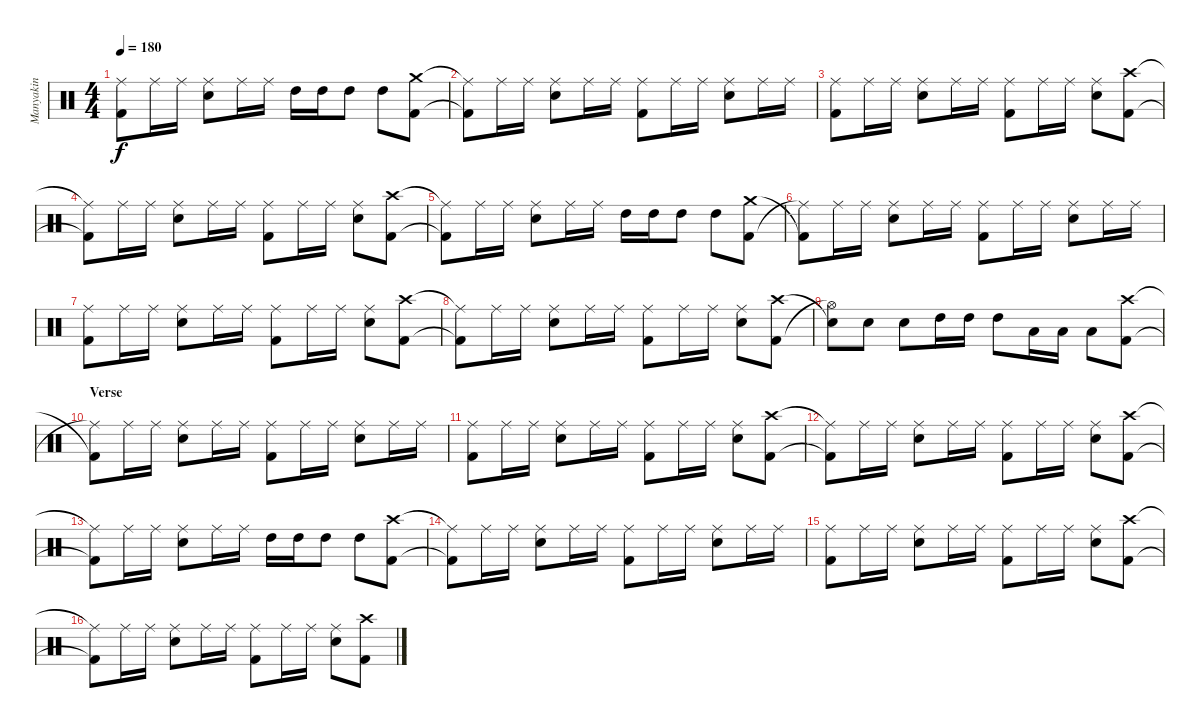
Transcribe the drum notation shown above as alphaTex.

\track ("Manyakin" "Manyakin") {instrument percussion}
\staff {score}
\articulation defaults
\ts (4 4)
\tempo 180
\clef neutral
\ks c
("Kick (hit) 2"{t} "Ride (middle)"{t}).8{dy f} "Ride (middle)".16 "Ride (middle)".16 ("Snare (hit) 2" "Ride (middle)").8 "Ride (middle)".16 "Ride (middle)".16 "High Tom (hit)".16 "High Tom (hit)".16 "High Tom (hit)".8 "High Tom (hit)".8 ("Crash medium (hit)" "Kick (hit) 2").8 |
("Ride (middle)"{t} "Kick (hit) 2"{t}).8 "Ride (middle)".16 "Ride (middle)".16 ("Ride (middle)" "Snare (hit) 2").8 "Ride (middle)".16 "Ride (middle)".16 ("Ride (middle)" "Kick (hit) 2").8 "Ride (middle)".16 "Ride (middle)".16 ("Ride (middle)" "Snare (hit) 2").8 "Ride (middle)".16 "Ride (middle)".16 |
("Kick (hit) 2" "Ride (middle)").8 "Ride (middle)".16 "Ride (middle)".16 ("Snare (hit) 2" "Ride (middle)").8 "Ride (middle)".16 "Ride (middle)".16 ("Kick (hit) 2" "Ride (middle)").8 "Ride (middle)".16 "Ride (middle)".16 ("Snare (hit) 2" "Ride (middle)").8 ("Kick (hit) 2" "Crash high (hit)").8 |
("Kick (hit) 2"{t} "Ride (middle)"{t}).8 "Ride (middle)".16 "Ride (middle)".16 ("Snare (hit) 2" "Ride (middle)").8 "Ride (middle)".16 "Ride (middle)".16 ("Kick (hit) 2" "Ride (middle)").8 "Ride (middle)".16 "Ride (middle)".16 ("Snare (hit) 2" "Ride (middle)").8 ("Kick (hit) 2" "Crash high (hit)").8 |
("Kick (hit) 2"{t} "Ride (middle)"{t}).8 "Ride (middle)".16 "Ride (middle)".16 ("Snare (hit) 2" "Ride (middle)").8 "Ride (middle)".16 "Ride (middle)".16 "High Tom (hit)".16 "High Tom (hit)".16 "High Tom (hit)".8 "High Tom (hit)".8 ("Crash medium (hit)" "Kick (hit) 2").8 |
("Kick (hit) 2"{t} "Ride (middle)"{t}).8 "Ride (middle)".16 "Ride (middle)".16 ("Snare (hit) 2" "Ride (middle)").8 "Ride (middle)".16 "Ride (middle)".16 ("Kick (hit) 2" "Ride (middle)").8 "Ride (middle)".16 "Ride (middle)".16 ("Snare (hit) 2" "Ride (middle)").8 "Ride (middle)".16 "Ride (middle)".16 |
("Kick (hit) 2" "Ride (middle)").8 "Ride (middle)".16 "Ride (middle)".16 ("Snare (hit) 2" "Ride (middle)").8 "Ride (middle)".16 "Ride (middle)".16 ("Kick (hit) 2" "Ride (middle)").8 "Ride (middle)".16 "Ride (middle)".16 ("Snare (hit) 2" "Ride (middle)").8 ("Kick (hit) 2" "Crash high (hit)").8 |
("Kick (hit) 2"{t} "Ride (middle)"{t}).8 "Ride (middle)".16 "Ride (middle)".16 ("Snare (hit) 2" "Ride (middle)").8 "Ride (middle)".16 "Ride (middle)".16 ("Kick (hit) 2" "Ride (middle)").8 "Ride (middle)".16 "Ride (middle)".16 ("Snare (hit) 2" "Ride (middle)").8 ("Kick (hit) 2" "Crash high (hit)").8 |
("Hi-Hat (open)"{t} "Snare (hit)"{t}).8 "Snare (hit) 2".8 "Snare (hit) 2".8 "High Tom (hit)".16 "High Tom (hit)".16 "High Tom (hit)".8 "Low Tom (hit)".16 "Low Tom (hit)".16 "Low Tom (hit)".8 ("Kick (hit) 2" "Crash high (hit)").8 |
\section ("" "Verse")
("Ride (middle)"{t} "Kick (hit) 2"{t}).8 "Ride (middle)".16 "Ride (middle)".16 ("Ride (middle)" "Snare (hit) 2").8 "Ride (middle)".16 "Ride (middle)".16 ("Ride (middle)" "Kick (hit) 2").8 "Ride (middle)".16 "Ride (middle)".16 ("Ride (middle)" "Snare (hit) 2").8 "Ride (middle)".16 "Ride (middle)".16 |
("Kick (hit) 2" "Ride (middle)").8 "Ride (middle)".16 "Ride (middle)".16 ("Snare (hit) 2" "Ride (middle)").8 "Ride (middle)".16 "Ride (middle)".16 ("Kick (hit) 2" "Ride (middle)").8 "Ride (middle)".16 "Ride (middle)".16 ("Snare (hit) 2" "Ride (middle)").8 ("Kick (hit) 2" "Crash high (hit)").8 |
("Kick (hit) 2"{t} "Ride (middle)"{t}).8 "Ride (middle)".16 "Ride (middle)".16 ("Snare (hit) 2" "Ride (middle)").8 "Ride (middle)".16 "Ride (middle)".16 ("Kick (hit) 2" "Ride (middle)").8 "Ride (middle)".16 "Ride (middle)".16 ("Snare (hit) 2" "Ride (middle)").8 ("Kick (hit) 2" "Crash high (hit)").8 |
("Kick (hit) 2"{t} "Ride (middle)"{t}).8 "Ride (middle)".16 "Ride (middle)".16 ("Snare (hit) 2" "Ride (middle)").8 "Ride (middle)".16 "Ride (middle)".16 "High Tom (hit)".16 "High Tom (hit)".16 "High Tom (hit)".8 "High Tom (hit)".8 ("Crash high (hit)" "Kick (hit) 2").8 |
("Ride (middle)"{t} "Kick (hit) 2"{t}).8 "Ride (middle)".16 "Ride (middle)".16 ("Ride (middle)" "Snare (hit) 2").8 "Ride (middle)".16 "Ride (middle)".16 ("Ride (middle)" "Kick (hit) 2").8 "Ride (middle)".16 "Ride (middle)".16 ("Ride (middle)" "Snare (hit) 2").8 "Ride (middle)".16 "Ride (middle)".16 |
("Kick (hit) 2" "Ride (middle)").8 "Ride (middle)".16 "Ride (middle)".16 ("Snare (hit) 2" "Ride (middle)").8 "Ride (middle)".16 "Ride (middle)".16 ("Kick (hit) 2" "Ride (middle)").8 "Ride (middle)".16 "Ride (middle)".16 ("Snare (hit) 2" "Ride (middle)").8 ("Kick (hit) 2" "Crash high (hit)").8 |
("Kick (hit) 2"{t} "Ride (middle)"{t}).8 "Ride (middle)".16 "Ride (middle)".16 ("Snare (hit) 2" "Ride (middle)").8 "Ride (middle)".16 "Ride (middle)".16 ("Kick (hit) 2" "Ride (middle)").8 "Ride (middle)".16 "Ride (middle)".16 ("Snare (hit) 2" "Ride (middle)").8 ("Kick (hit) 2" "Crash high (hit)").8
